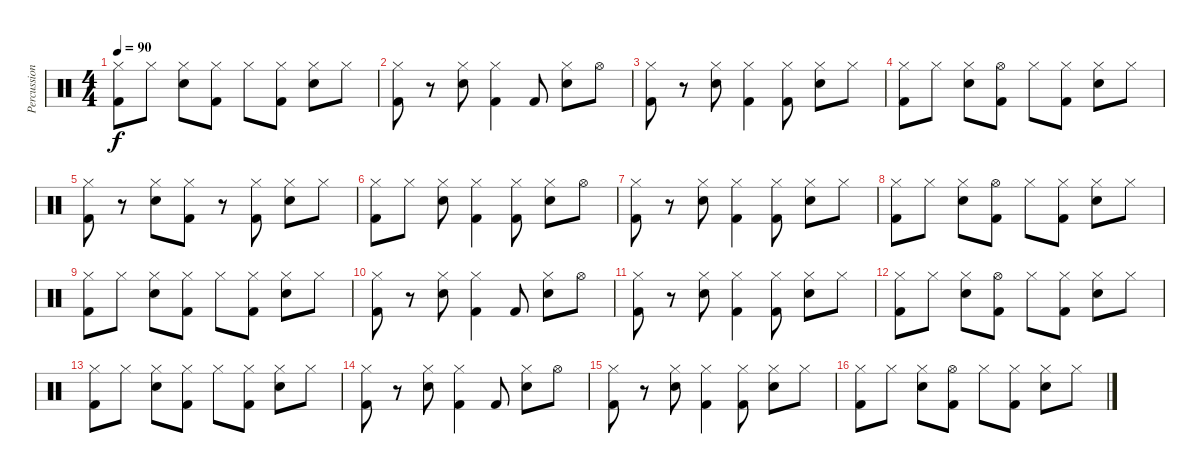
\track ("Percussion" "Percussion") {instrument percussion}
\staff {score}
\articulation defaults
\ts (4 4)
\tempo 90
\clef neutral
\ks c
("Hi-Hat (closed)" "Kick (hit) 2").8{dy f} "Hi-Hat (closed)".8 ("Hi-Hat (closed)" "Snare (hit) 2").8 ("Hi-Hat (closed)" "Kick (hit) 2").8 "Hi-Hat (closed)".8 ("Hi-Hat (closed)" "Kick (hit) 2").8 ("Hi-Hat (closed)" "Snare (hit) 2").8 "Hi-Hat (closed)".8 |
("Hi-Hat (closed)" "Kick (hit) 2").8 r.8 ("Hi-Hat (closed)" "Snare (hit) 2").8 ("Hi-Hat (closed)" "Kick (hit) 2").4 "Kick (hit) 2".8 ("Hi-Hat (closed)" "Snare (hit) 2").8 "Hi-Hat (open)".8 |
("Hi-Hat (closed)" "Kick (hit) 2").8 r.8 ("Hi-Hat (closed)" "Snare (hit) 2").8 ("Hi-Hat (closed)" "Kick (hit) 2").4 ("Hi-Hat (closed)" "Kick (hit) 2").8 ("Hi-Hat (closed)" "Snare (hit) 2").8 "Hi-Hat (closed)".8 |
("Hi-Hat (closed)" "Kick (hit) 2").8 "Hi-Hat (closed)".8 ("Hi-Hat (closed)" "Snare (hit) 2").8 ("Hi-Hat (open)" "Kick (hit) 2").8 "Hi-Hat (closed)".8 ("Hi-Hat (closed)" "Kick (hit) 2").8 ("Hi-Hat (closed)" "Snare (hit) 2").8 "Hi-Hat (closed)".8 |
("Hi-Hat (closed)" "Kick (hit) 2").8 r.8 ("Hi-Hat (closed)" "Snare (hit) 2").8 ("Hi-Hat (closed)" "Kick (hit) 2").8 r.8 ("Hi-Hat (closed)" "Kick (hit) 2").8 ("Hi-Hat (closed)" "Snare (hit) 2").8 "Hi-Hat (closed)".8 |
("Hi-Hat (closed)" "Kick (hit) 2").8 "Hi-Hat (closed)".8 ("Hi-Hat (closed)" "Snare (hit) 2").8 ("Hi-Hat (closed)" "Kick (hit) 2").4 ("Hi-Hat (closed)" "Kick (hit) 2").8 ("Hi-Hat (closed)" "Snare (hit) 2").8 "Hi-Hat (open)".8 |
("Hi-Hat (closed)" "Kick (hit) 2").8 r.8 ("Hi-Hat (closed)" "Snare (hit) 2").8 ("Hi-Hat (closed)" "Kick (hit) 2").4 ("Hi-Hat (closed)" "Kick (hit) 2").8 ("Hi-Hat (closed)" "Snare (hit) 2").8 "Hi-Hat (closed)".8 |
("Hi-Hat (closed)" "Kick (hit) 2").8 "Hi-Hat (closed)".8 ("Hi-Hat (closed)" "Snare (hit) 2").8 ("Hi-Hat (open)" "Kick (hit) 2").8 "Hi-Hat (closed)".8 ("Hi-Hat (closed)" "Kick (hit) 2").8 ("Hi-Hat (closed)" "Snare (hit) 2").8 "Hi-Hat (closed)".8 |
("Hi-Hat (closed)" "Kick (hit) 2").8 "Hi-Hat (closed)".8 ("Hi-Hat (closed)" "Snare (hit) 2").8 ("Hi-Hat (closed)" "Kick (hit) 2").8 "Hi-Hat (closed)".8 ("Hi-Hat (closed)" "Kick (hit) 2").8 ("Hi-Hat (closed)" "Snare (hit) 2").8 "Hi-Hat (closed)".8 |
("Hi-Hat (closed)" "Kick (hit) 2").8 r.8 ("Hi-Hat (closed)" "Snare (hit) 2").8 ("Hi-Hat (closed)" "Kick (hit) 2").4 "Kick (hit) 2".8 ("Hi-Hat (closed)" "Snare (hit) 2").8 "Hi-Hat (open)".8 |
("Hi-Hat (closed)" "Kick (hit) 2").8 r.8 ("Hi-Hat (closed)" "Snare (hit) 2").8 ("Hi-Hat (closed)" "Kick (hit) 2").4 ("Hi-Hat (closed)" "Kick (hit) 2").8 ("Hi-Hat (closed)" "Snare (hit) 2").8 "Hi-Hat (closed)".8 |
("Hi-Hat (closed)" "Kick (hit) 2").8 "Hi-Hat (closed)".8 ("Hi-Hat (closed)" "Snare (hit) 2").8 ("Hi-Hat (open)" "Kick (hit) 2").8 "Hi-Hat (closed)".8 ("Hi-Hat (closed)" "Kick (hit) 2").8 ("Hi-Hat (closed)" "Snare (hit) 2").8 "Hi-Hat (closed)".8 |
("Hi-Hat (closed)" "Kick (hit) 2").8 "Hi-Hat (closed)".8 ("Hi-Hat (closed)" "Snare (hit) 2").8 ("Hi-Hat (closed)" "Kick (hit) 2").8 "Hi-Hat (closed)".8 ("Hi-Hat (closed)" "Kick (hit) 2").8 ("Hi-Hat (closed)" "Snare (hit) 2").8 "Hi-Hat (closed)".8 |
("Hi-Hat (closed)" "Kick (hit) 2").8 r.8 ("Hi-Hat (closed)" "Snare (hit) 2").8 ("Hi-Hat (closed)" "Kick (hit) 2").4 "Kick (hit) 2".8 ("Hi-Hat (closed)" "Snare (hit) 2").8 "Hi-Hat (open)".8 |
("Hi-Hat (closed)" "Kick (hit) 2").8 r.8 ("Hi-Hat (closed)" "Snare (hit) 2").8 ("Hi-Hat (closed)" "Kick (hit) 2").4 ("Hi-Hat (closed)" "Kick (hit) 2").8 ("Hi-Hat (closed)" "Snare (hit) 2").8 "Hi-Hat (closed)".8 |
("Hi-Hat (closed)" "Kick (hit) 2").8 "Hi-Hat (closed)".8 ("Hi-Hat (closed)" "Snare (hit) 2").8 ("Hi-Hat (open)" "Kick (hit) 2").8 "Hi-Hat (closed)".8 ("Hi-Hat (closed)" "Kick (hit) 2").8 ("Hi-Hat (closed)" "Snare (hit) 2").8 "Hi-Hat (closed)".8
